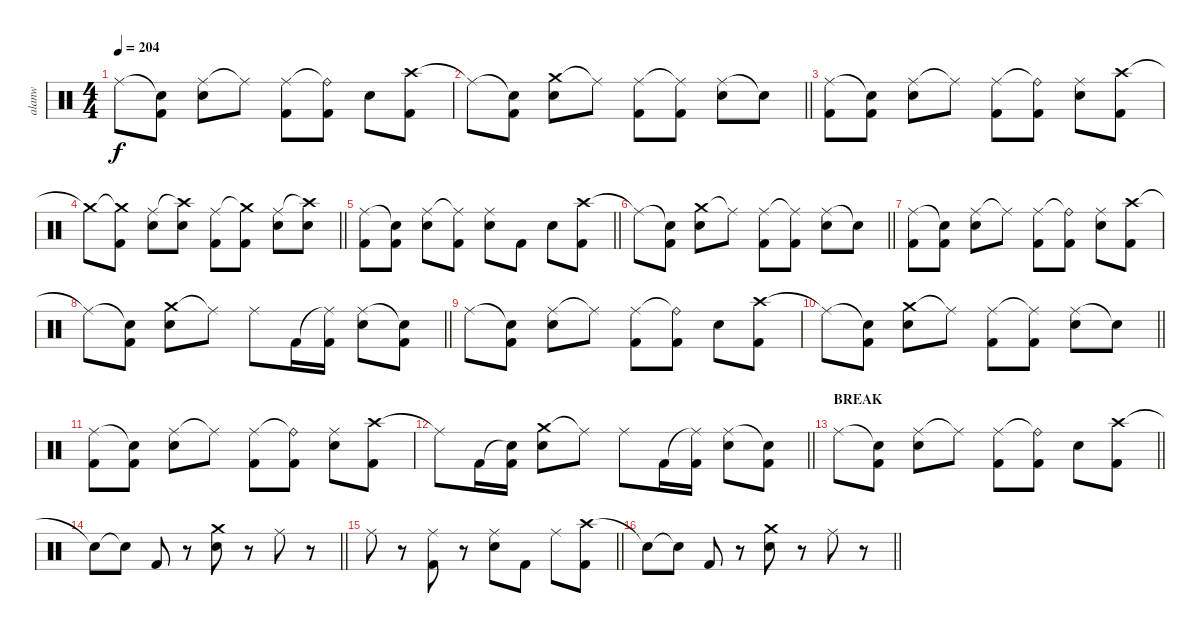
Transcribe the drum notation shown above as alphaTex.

\track ("alanw" "alanw") {instrument percussion}
\staff {score}
\articulation defaults
\ts (4 4)
\tempo 204
\clef neutral
\ks c "Ride (middle)".8{dy f}
("Snare (hit)"{t} "Kick (hit) 2").8 ("Ride (middle)" "Electric Snare (hit)").8 "Ride (middle)"{t}.8 ("Ride (middle)" "Kick (hit) 2").8 ("Ride (bell)"{t} "Kick (hit) 2").8 "Electric Snare (hit)".8 ("Crash high (hit)" "Kick (hit) 2").8 |
\barLineRight lightlight "Ride (middle)"{t}.8
("Snare (hit)"{t} "Kick (hit) 2").8 ("Crash medium (hit)" "Electric Snare (hit)").8 "Ride (middle)"{t}.8 ("Ride (middle)" "Kick (hit) 2").8 ("Ride (middle)"{t} "Kick (hit) 2").8 ("Ride (middle)" "Electric Snare (hit)").8 "Snare (hit)"{t}.8 |
("Ride (middle)" "Kick (hit) 2").8 ("Snare (hit)"{t} "Kick (hit) 2").8 ("Ride (middle)" "Electric Snare (hit)").8 "Ride (middle)"{t}.8 ("Ride (middle)" "Kick (hit) 2").8 ("Ride (bell)"{t} "Kick (hit) 2").8 ("Ride (middle)" "Electric Snare (hit)").8 ("Crash high (hit)" "Kick (hit) 2").8 |
\barLineRight lightlight "Crash medium (hit)"{t}.8
("Crash medium (hit)"{t} "Kick (hit) 2").8 ("Ride (middle)" "Electric Snare (hit)").8 ("Crash high (hit)"{t} "Electric Snare (hit)").8 ("Ride (middle)" "Kick (hit) 2").8 ("Crash medium (hit)"{t} "Kick (hit) 2").8 ("Ride (middle)" "Electric Snare (hit)").8 ("Crash high (hit)"{t} "Electric Snare (hit)").8 |
\section ("" "")
\barLineRight lightlight
("Ride (middle)" "Kick (hit) 2").8 ("Snare (hit)"{t} "Kick (hit) 2").8 ("Ride (middle)" "Electric Snare (hit)").8 ("Ride (middle)"{t} "Kick (hit) 2").8 ("Ride (middle)" "Electric Snare (hit)").8 "Kick (hit) 2".8 "Electric Snare (hit)".8 ("Crash high (hit)" "Kick (hit) 2").8 |
\barLineRight lightlight "Ride (middle)"{t}.8
("Snare (hit)"{t} "Kick (hit) 2").8 ("Crash medium (hit)" "Electric Snare (hit)").8 "Ride (middle)"{t}.8 ("Ride (middle)" "Kick (hit) 2").8 ("Ride (middle)"{t} "Kick (hit) 2").8 ("Ride (middle)" "Electric Snare (hit)").8 "Snare (hit)"{t}.8 |
("Ride (middle)" "Kick (hit) 2").8 ("Snare (hit)"{t} "Kick (hit) 2").8 ("Ride (middle)" "Electric Snare (hit)").8 "Ride (middle)"{t}.8 ("Ride (middle)" "Kick (hit) 2").8 ("Ride (bell)"{t} "Kick (hit) 2").8 ("Ride (middle)" "Electric Snare (hit)").8 ("Crash high (hit)" "Kick (hit) 2").8 |
\barLineRight lightlight "Ride (middle)"{t}.8
("Snare (hit)"{t} "Kick (hit) 2").8 ("Crash medium (hit)" "Electric Snare (hit)").8 "Ride (middle)"{t}.8 "Ride (middle)".8 "Kick (hit) 2".16 ("Ride (middle)"{t} "Kick (hit) 2").16 ("Ride (middle)" "Electric Snare (hit)").8 ("Snare (hit)"{t} "Kick (hit) 2").8 |
"Ride (middle)".8 ("Snare (hit)"{t} "Kick (hit) 2").8 ("Ride (middle)" "Electric Snare (hit)").8 "Ride (middle)"{t}.8 ("Ride (middle)" "Kick (hit) 2").8 ("Ride (bell)"{t} "Kick (hit) 2").8 "Electric Snare (hit)".8 ("Crash high (hit)" "Kick (hit) 2").8 |
\barLineRight lightlight "Ride (middle)"{t}.8
("Snare (hit)"{t} "Kick (hit) 2").8 ("Crash medium (hit)" "Electric Snare (hit)").8 "Ride (middle)"{t}.8 ("Ride (middle)" "Kick (hit) 2").8 ("Ride (middle)"{t} "Kick (hit) 2").8 ("Ride (middle)" "Electric Snare (hit)").8 "Snare (hit)"{t}.8 |
("Ride (middle)" "Kick (hit) 2").8 ("Snare (hit)"{t} "Kick (hit) 2").8 ("Ride (middle)" "Electric Snare (hit)").8 "Ride (middle)"{t}.8 ("Ride (middle)" "Kick (hit) 2").8 ("Ride (bell)"{t} "Kick (hit) 2").8 ("Ride (middle)" "Electric Snare (hit)").8 ("Crash high (hit)" "Kick (hit) 2").8 |
\barLineRight lightlight "Ride (middle)"{t}.8 "Kick (hit) 2".16
("Snare (hit)"{t} "Kick (hit) 2").16 ("Crash medium (hit)" "Electric Snare (hit)").8 "Ride (middle)"{t}.8 "Ride (middle)".8 "Kick (hit) 2".16 ("Ride (middle)"{t} "Kick (hit) 2").16 ("Ride (middle)" "Electric Snare (hit)").8 ("Snare (hit)"{t} "Kick (hit) 2").8 |
\section ("" "BREAK")
\barLineRight lightlight "Ride (middle)".8
("Snare (hit)"{t} "Kick (hit) 2").8 ("Ride (middle)" "Electric Snare (hit)").8 "Ride (middle)"{t}.8 ("Ride (middle)" "Kick (hit) 2").8 ("Ride (bell)"{t} "Kick (hit) 2").8 "Electric Snare (hit)".8 ("Crash high (hit)" "Kick (hit) 2").8 |
\barLineRight lightlight "Snare (hit)"{t}.8 "Snare (hit)"{t}.8 "Kick (hit) 2".8
r.8 ("Crash medium (hit)" "Electric Snare (hit)").8 r.8 "Ride (middle)".8 r.8 |
\barLineRight lightlight "Ride (middle)".8
r.8 ("Ride (middle)" "Kick (hit) 2").8 r.8 ("Ride (middle)" "Electric Snare (hit)").8 "Kick (hit) 2".8 "Ride (middle)".8 ("Crash high (hit)" "Kick (hit) 2").8 |
\barLineRight lightlight "Snare (hit)"{t}.8 "Snare (hit)"{t}.8 "Kick (hit) 2".8
r.8 ("Crash medium (hit)" "Electric Snare (hit)").8 r.8 "Ride (middle)".8 r.8
